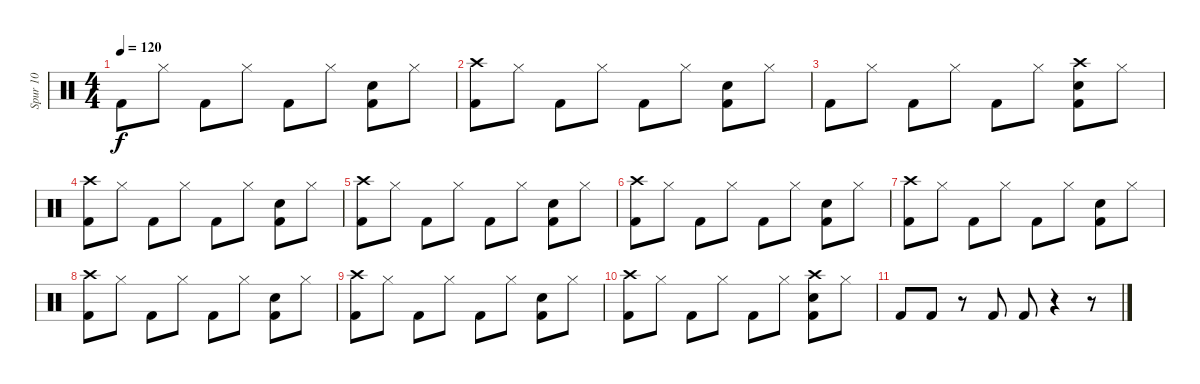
\track ("Spur 10" "Spur 10") {instrument percussion}
\staff {score}
\articulation defaults
\ts (4 4)
\tempo 120
\clef neutral
\ks c "Kick (hit) 2".8{dy f} "Hi-Hat (closed)".8 "Kick (hit) 2".8 "Hi-Hat (closed)".8 "Kick (hit) 2".8 "Hi-Hat (closed)".8
("Kick (hit) 2" "Hand Clap (hit)").8 "Hi-Hat (closed)".8 |
("Kick (hit) 2" "Crash high (hit)").8 "Hi-Hat (closed)".8 "Kick (hit) 2".8 "Hi-Hat (closed)".8 "Kick (hit) 2".8 "Hi-Hat (closed)".8 ("Kick (hit) 2" "Hand Clap (hit)").8 "Hi-Hat (closed)".8 |
"Kick (hit) 2".8 "Hi-Hat (closed)".8 "Kick (hit) 2".8 "Hi-Hat (closed)".8 "Kick (hit) 2".8 "Hi-Hat (closed)".8 ("Kick (hit) 2" "Hand Clap (hit)" "Crash high (hit)").8 "Hi-Hat (closed)".8 |
("Kick (hit) 2" "Crash high (hit)").8 "Hi-Hat (closed)".8 "Kick (hit) 2".8 "Hi-Hat (closed)".8 "Kick (hit) 2".8 "Hi-Hat (closed)".8 ("Kick (hit) 2" "Hand Clap (hit)").8 "Hi-Hat (closed)".8 |
("Kick (hit) 2" "Crash high (hit)").8 "Hi-Hat (closed)".8 "Kick (hit) 2".8 "Hi-Hat (closed)".8 "Kick (hit) 2".8 "Hi-Hat (closed)".8 ("Kick (hit) 2" "Hand Clap (hit)").8 "Hi-Hat (closed)".8 |
("Kick (hit) 2" "Crash high (hit)").8 "Hi-Hat (closed)".8 "Kick (hit) 2".8 "Hi-Hat (closed)".8 "Kick (hit) 2".8 "Hi-Hat (closed)".8 ("Kick (hit) 2" "Hand Clap (hit)").8 "Hi-Hat (closed)".8 |
("Kick (hit) 2" "Crash high (hit)").8 "Hi-Hat (closed)".8 "Kick (hit) 2".8 "Hi-Hat (closed)".8 "Kick (hit) 2".8 "Hi-Hat (closed)".8 ("Kick (hit) 2" "Hand Clap (hit)").8 "Hi-Hat (closed)".8 |
("Kick (hit) 2" "Crash high (hit)").8 "Hi-Hat (closed)".8 "Kick (hit) 2".8 "Hi-Hat (closed)".8 "Kick (hit) 2".8 "Hi-Hat (closed)".8 ("Kick (hit) 2" "Hand Clap (hit)").8 "Hi-Hat (closed)".8 |
("Kick (hit) 2" "Crash high (hit)").8 "Hi-Hat (closed)".8 "Kick (hit) 2".8 "Hi-Hat (closed)".8 "Kick (hit) 2".8 "Hi-Hat (closed)".8 ("Kick (hit) 2" "Hand Clap (hit)").8 "Hi-Hat (closed)".8 |
("Kick (hit) 2" "Crash high (hit)").8 "Hi-Hat (closed)".8 "Kick (hit) 2".8 "Hi-Hat (closed)".8 "Kick (hit) 2".8 "Hi-Hat (closed)".8 ("Kick (hit) 2" "Hand Clap (hit)" "Crash high (hit)").8 "Hi-Hat (closed)".8 |
"Kick (hit) 2".8 "Kick (hit) 2".8 r.8 "Kick (hit) 2".8 "Kick (hit) 2".8 r.4 r.8
